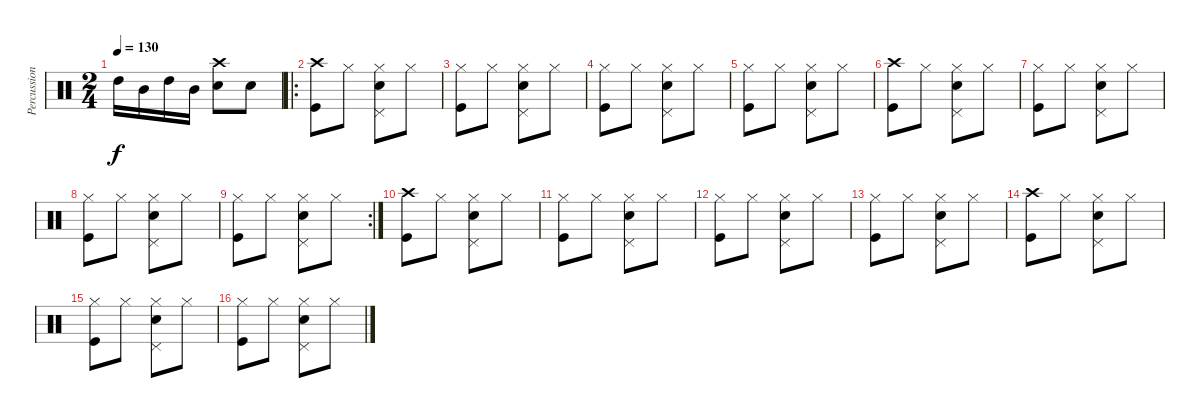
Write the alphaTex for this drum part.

\track ("Percussioni" "Percussion") {instrument percussion}
\staff {score}
\articulation defaults
\ts (2 4)
\tempo 130
\clef neutral
\ks c "High Tom (hit)".16{dy f} "Mid Tom (hit)".16 "High Tom (hit)".16 "Mid Tom (hit)".16
("Crash high (hit)" "Electric Snare (hit)").8 "Electric Snare (hit)".8 |
\ro
("Crash high (hit)" "Kick (hit)").8 "Hi-Hat (closed)".8 ("Hi-Hat (closed)" "Pedal Hi-Hat (hit)" "Snare (hit) 2").8 "Hi-Hat (closed)".8 |
("Hi-Hat (closed)" "Kick (hit)").8 "Hi-Hat (closed)".8 ("Hi-Hat (closed)" "Pedal Hi-Hat (hit)" "Snare (hit) 2").8 "Hi-Hat (closed)".8 |
("Hi-Hat (closed)" "Kick (hit)").8 "Hi-Hat (closed)".8 ("Hi-Hat (closed)" "Pedal Hi-Hat (hit)" "Snare (hit) 2").8 "Hi-Hat (closed)".8 |
("Hi-Hat (closed)" "Kick (hit)").8 "Hi-Hat (closed)".8 ("Hi-Hat (closed)" "Pedal Hi-Hat (hit)" "Snare (hit) 2").8 "Hi-Hat (closed)".8 |
("Crash high (hit)" "Kick (hit)").8 "Hi-Hat (closed)".8 ("Hi-Hat (closed)" "Pedal Hi-Hat (hit)" "Snare (hit) 2").8 "Hi-Hat (closed)".8 |
("Hi-Hat (closed)" "Kick (hit)").8 "Hi-Hat (closed)".8 ("Hi-Hat (closed)" "Pedal Hi-Hat (hit)" "Snare (hit) 2").8 "Hi-Hat (closed)".8 |
("Hi-Hat (closed)" "Kick (hit)").8 "Hi-Hat (closed)".8 ("Hi-Hat (closed)" "Pedal Hi-Hat (hit)" "Snare (hit) 2").8 "Hi-Hat (closed)".8 |
\rc 2
("Hi-Hat (closed)" "Kick (hit)").8 "Hi-Hat (closed)".8 ("Hi-Hat (closed)" "Pedal Hi-Hat (hit)" "Snare (hit) 2").8 "Hi-Hat (closed)".8 |
("Crash high (hit)" "Kick (hit)").8 "Hi-Hat (closed)".8 ("Hi-Hat (closed)" "Pedal Hi-Hat (hit)" "Snare (hit) 2").8 "Hi-Hat (closed)".8 |
("Hi-Hat (closed)" "Kick (hit)").8 "Hi-Hat (closed)".8 ("Hi-Hat (closed)" "Pedal Hi-Hat (hit)" "Snare (hit) 2").8 "Hi-Hat (closed)".8 |
("Hi-Hat (closed)" "Kick (hit)").8 "Hi-Hat (closed)".8 ("Hi-Hat (closed)" "Pedal Hi-Hat (hit)" "Snare (hit) 2").8 "Hi-Hat (closed)".8 |
("Hi-Hat (closed)" "Kick (hit)").8 "Hi-Hat (closed)".8 ("Hi-Hat (closed)" "Pedal Hi-Hat (hit)" "Snare (hit) 2").8 "Hi-Hat (closed)".8 |
("Crash high (hit)" "Kick (hit)").8 "Hi-Hat (closed)".8 ("Hi-Hat (closed)" "Pedal Hi-Hat (hit)" "Snare (hit) 2").8 "Hi-Hat (closed)".8 |
("Hi-Hat (closed)" "Kick (hit)").8 "Hi-Hat (closed)".8 ("Hi-Hat (closed)" "Pedal Hi-Hat (hit)" "Snare (hit) 2").8 "Hi-Hat (closed)".8 |
("Hi-Hat (closed)" "Kick (hit)").8 "Hi-Hat (closed)".8 ("Hi-Hat (closed)" "Pedal Hi-Hat (hit)" "Snare (hit) 2").8 "Hi-Hat (closed)".8
